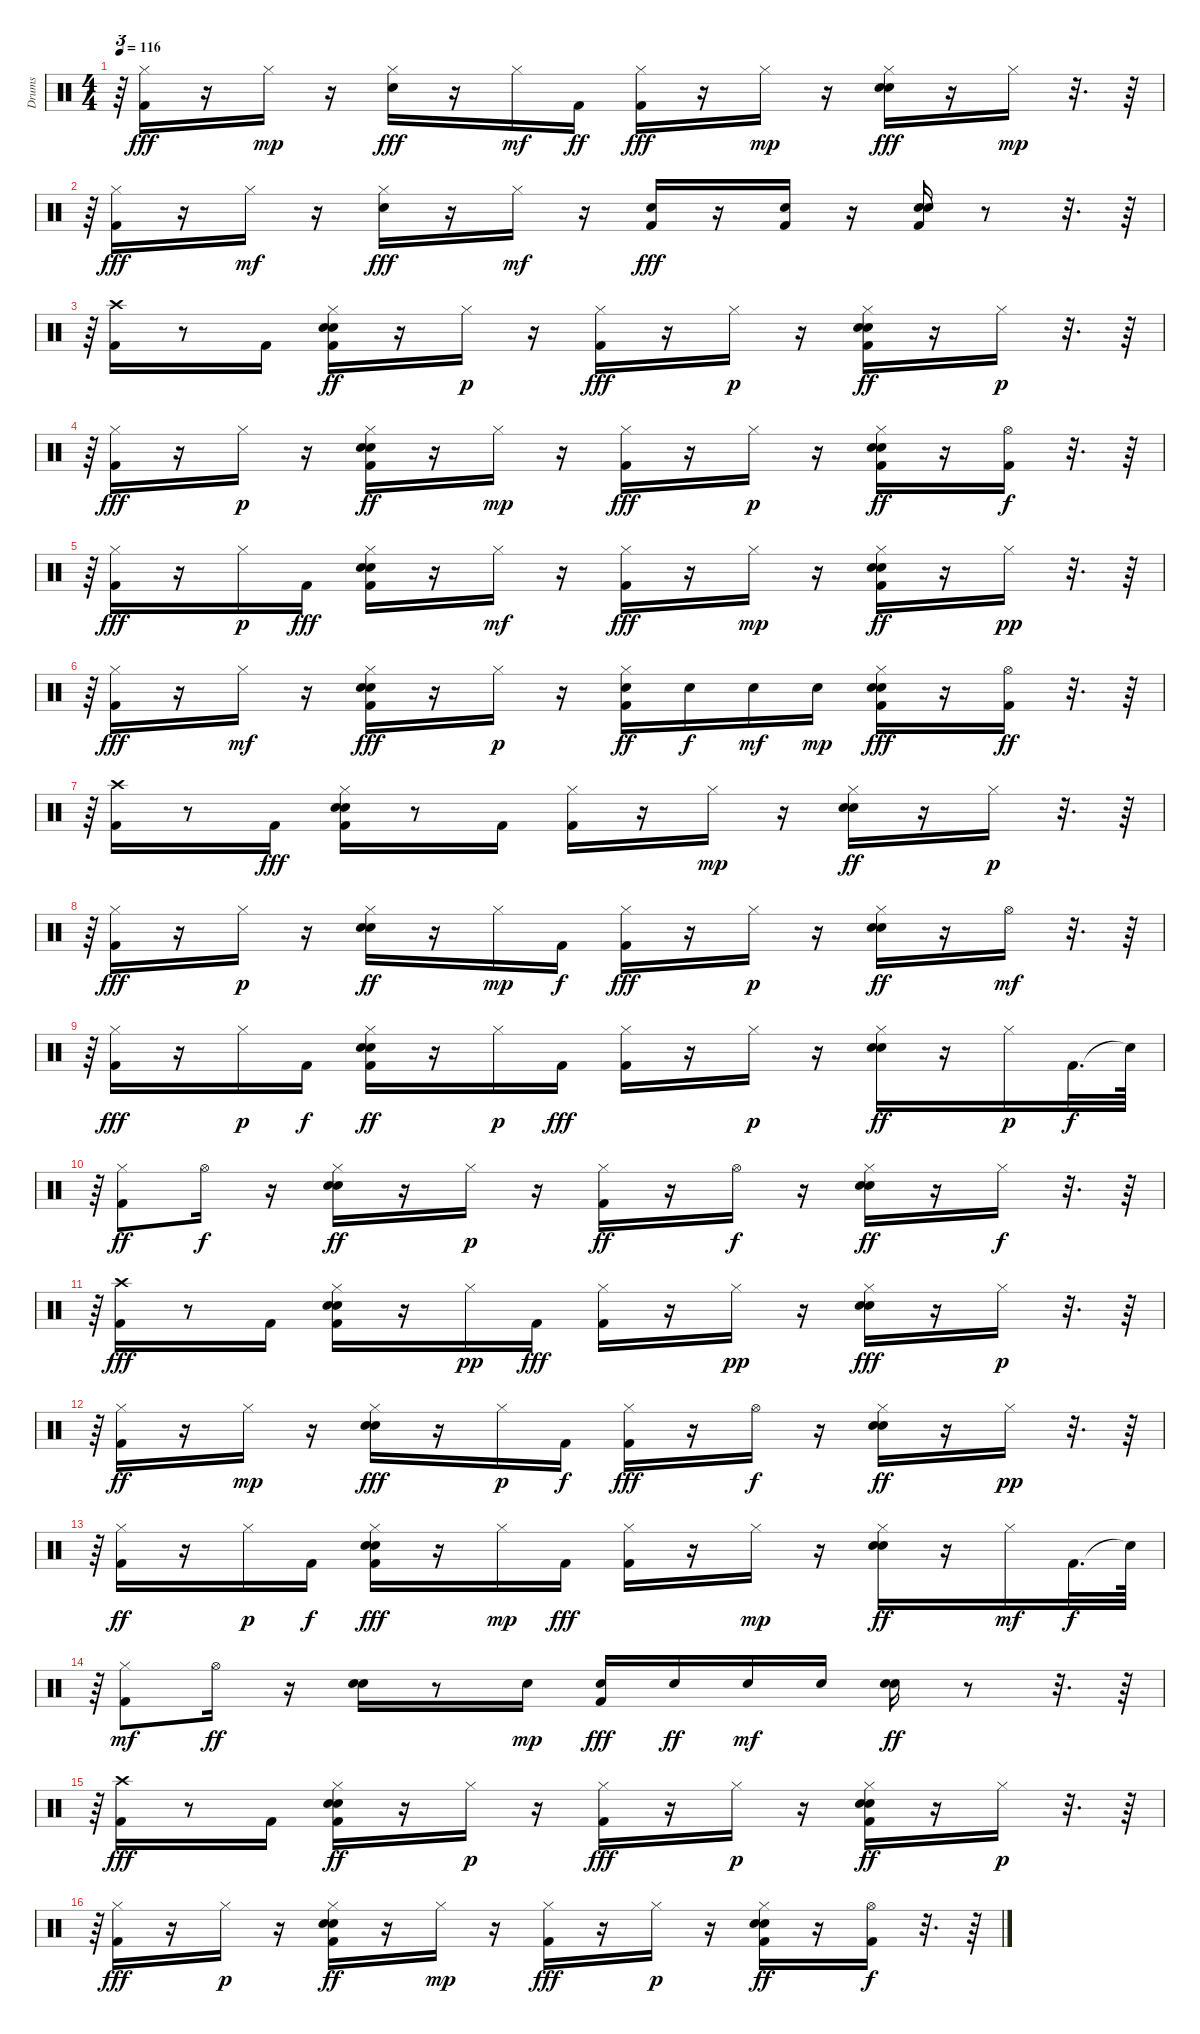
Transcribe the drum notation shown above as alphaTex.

\track ("Drums" "Drums") {instrument percussion}
\staff {score}
\articulation defaults
\ts (4 4)
\tempo 116
\clef neutral
\ks c
r.64{tu (3 2) dy fff} ("Hi-Hat (closed)" "Kick (hit) 2").16 r.16 "Hi-Hat (closed)".16{dy mp} r.16 ("Snare (hit) 2" "Hi-Hat (closed)").16{dy fff} r.16 "Hi-Hat (closed)".16{dy mf} "Kick (hit) 2".16{dy ff} ("Hi-Hat (closed)" "Kick (hit) 2").16{dy fff} r.16 "Hi-Hat (closed)".16{dy mp} r.16 ("Hi-Hat (closed)" "Snare (hit) 2" "Hand Clap (hit)").16{dy fff} r.16 "Hi-Hat (closed)".16{dy mp} r.32{d} r.64 |
r.64{tu (3 2)} ("Kick (hit) 2" "Hi-Hat (closed)").16{dy fff} r.16 "Hi-Hat (closed)".16{dy mf} r.16 ("Snare (hit) 2" "Hi-Hat (closed)").16{dy fff} r.16 "Hi-Hat (closed)".16{dy mf} r.16 ("Kick (hit) 2" "Snare (hit) 2").16{dy fff} r.16 ("Snare (hit) 2" "Kick (hit) 2").16 r.16 ("Kick (hit) 2" "Hand Clap (hit)" "Snare (hit) 2").16 r.8 r.32{d} r.64 |
r.64{tu (3 2)} ("Kick (hit) 2" "Crash high (hit)").16 r.8 "Kick (hit) 2".16 ("Snare (hit) 2" "Kick (hit) 2" "Hi-Hat (closed)" "Hand Clap (hit)").16{dy ff} r.16 "Hi-Hat (closed)".16{dy p} r.16 ("Kick (hit) 2" "Hi-Hat (closed)").16{dy fff} r.16 "Hi-Hat (closed)".16{dy p} r.16 ("Hi-Hat (closed)" "Snare (hit) 2" "Kick (hit) 2" "Hand Clap (hit)").16{dy ff} r.16 "Hi-Hat (closed)".16{dy p} r.32{d} r.64 |
r.64{tu (3 2)} ("Hi-Hat (closed)" "Kick (hit) 2").16{dy fff} r.16 "Hi-Hat (closed)".16{dy p} r.16 ("Kick (hit) 2" "Snare (hit) 2" "Hi-Hat (closed)" "Hand Clap (hit)").16{dy ff} r.16 "Hi-Hat (closed)".16{dy mp} r.16 ("Hi-Hat (closed)" "Kick (hit) 2").16{dy fff} r.16 "Hi-Hat (closed)".16{dy p} r.16 ("Kick (hit) 2" "Snare (hit) 2" "Hand Clap (hit)" "Hi-Hat (closed)").16{dy ff} r.16 ("Kick (hit) 2" "Hi-Hat (open)").16{dy f} r.32{d} r.64 |
r.64{tu (3 2)} ("Hi-Hat (closed)" "Kick (hit) 2").16{dy fff} r.16 "Hi-Hat (closed)".16{dy p} "Kick (hit) 2".16{dy fff} ("Hi-Hat (closed)" "Snare (hit) 2" "Hand Clap (hit)" "Kick (hit) 2").16 r.16 "Hi-Hat (closed)".16{dy mf} r.16 ("Kick (hit) 2" "Hi-Hat (closed)").16{dy fff} r.16 "Hi-Hat (closed)".16{dy mp} r.16 ("Snare (hit) 2" "Kick (hit) 2" "Hi-Hat (closed)" "Hand Clap (hit)").16{dy ff} r.16 "Hi-Hat (closed)".16{dy pp} r.32{d} r.64 |
r.64{tu (3 2)} ("Hi-Hat (closed)" "Kick (hit) 2").16{dy fff} r.16 "Hi-Hat (closed)".16{dy mf} r.16 ("Hi-Hat (closed)" "Snare (hit) 2" "Hand Clap (hit)" "Kick (hit) 2").16{dy fff} r.16 "Hi-Hat (closed)".16{dy p} r.16 ("Kick (hit) 2" "Snare (hit) 2" "Hi-Hat (closed)").16{dy ff} "Snare (hit) 2".16{dy f} "Snare (hit) 2".16{dy mf} "Snare (hit) 2".16{dy mp} ("Hi-Hat (closed)" "Hand Clap (hit)" "Snare (hit) 2" "Kick (hit) 2").16{dy fff} r.16 ("Kick (hit) 2" "Hi-Hat (open)").16{dy ff} r.32{d} r.64 |
r.64{tu (3 2)} ("Kick (hit) 2" "Crash high (hit)").16 r.8 "Kick (hit) 2".16{dy fff} ("Hand Clap (hit)" "Snare (hit) 2" "Hi-Hat (closed)" "Kick (hit) 2").16 r.8 "Kick (hit) 2".16 ("Hi-Hat (closed)" "Kick (hit) 2").16 r.16 "Hi-Hat (closed)".16{dy mp} r.16 ("Snare (hit) 2" "Hand Clap (hit)" "Hi-Hat (closed)").16{dy ff} r.16 "Hi-Hat (closed)".16{dy p} r.32{d} r.64 |
r.64{tu (3 2)} ("Hi-Hat (closed)" "Kick (hit) 2").16{dy fff} r.16 "Hi-Hat (closed)".16{dy p} r.16 ("Hand Clap (hit)" "Snare (hit) 2" "Hi-Hat (closed)").16{dy ff} r.16 "Hi-Hat (closed)".16{dy mp} "Kick (hit) 2".16{dy f} ("Kick (hit) 2" "Hi-Hat (closed)").16{dy fff} r.16 "Hi-Hat (closed)".16{dy p} r.16 ("Hi-Hat (closed)" "Snare (hit) 2" "Hand Clap (hit)").16{dy ff} r.16 "Hi-Hat (open)".16{dy mf} r.32{d} r.64 |
r.64{tu (3 2)} ("Kick (hit) 2" "Hi-Hat (closed)").16{dy fff} r.16 "Hi-Hat (closed)".16{dy p} "Kick (hit) 2".16{dy f} ("Snare (hit) 2" "Kick (hit) 2" "Hand Clap (hit)" "Hi-Hat (closed)").16{dy ff} r.16 "Hi-Hat (closed)".16{dy p} "Kick (hit) 2".16{dy fff} ("Hi-Hat (closed)" "Kick (hit) 2").16 r.16 "Hi-Hat (closed)".16{dy p} r.16 ("Snare (hit) 2" "Hi-Hat (closed)" "Hand Clap (hit)").16{dy ff} r.16 "Hi-Hat (closed)".16{dy p} "Kick (hit) 2".32{d dy f} "Snare (hit)"{t}.64 |
r.64{tu (3 2)} ("Kick (hit) 2" "Hi-Hat (closed)").8{dy ff} "Hi-Hat (open)".16{dy f} r.16 ("Snare (hit) 2" "Hi-Hat (closed)" "Hand Clap (hit)").16{dy ff} r.16 "Hi-Hat (closed)".16{dy p} r.16 ("Kick (hit) 2" "Hi-Hat (closed)").16{dy ff} r.16 "Hi-Hat (open)".16{dy f} r.16 ("Snare (hit) 2" "Hi-Hat (closed)" "Hand Clap (hit)").16{dy ff} r.16 "Hi-Hat (closed)".16{dy f} r.32{d} r.64 |
r.64{tu (3 2)} ("Crash high (hit)" "Kick (hit) 2").16{dy fff} r.8 "Kick (hit) 2".16 ("Hi-Hat (closed)" "Hand Clap (hit)" "Kick (hit) 2" "Snare (hit) 2").16 r.16 "Hi-Hat (closed)".16{dy pp} "Kick (hit) 2".16{dy fff} ("Hi-Hat (closed)" "Kick (hit) 2").16 r.16 "Hi-Hat (closed)".16{dy pp} r.16 ("Hand Clap (hit)" "Snare (hit) 2" "Hi-Hat (closed)").16{dy fff} r.16 "Hi-Hat (closed)".16{dy p} r.32{d} r.64 |
r.64{tu (3 2)} ("Kick (hit) 2" "Hi-Hat (closed)").16{dy ff} r.16 "Hi-Hat (closed)".16{dy mp} r.16 ("Hand Clap (hit)" "Hi-Hat (closed)" "Snare (hit) 2").16{dy fff} r.16 "Hi-Hat (closed)".16{dy p} "Kick (hit) 2".16{dy f} ("Hi-Hat (closed)" "Kick (hit) 2").16{dy fff} r.16 "Hi-Hat (open)".16{dy f} r.16 ("Hi-Hat (closed)" "Snare (hit) 2" "Hand Clap (hit)").16{dy ff} r.16 "Hi-Hat (closed)".16{dy pp} r.32{d} r.64 |
r.64{tu (3 2)} ("Kick (hit) 2" "Hi-Hat (closed)").16{dy ff} r.16 "Hi-Hat (closed)".16{dy p} "Kick (hit) 2".16{dy f} ("Snare (hit) 2" "Kick (hit) 2" "Hi-Hat (closed)" "Hand Clap (hit)").16{dy fff} r.16 "Hi-Hat (closed)".16{dy mp} "Kick (hit) 2".16{dy fff} ("Hi-Hat (closed)" "Kick (hit) 2").16 r.16 "Hi-Hat (closed)".16{dy mp} r.16 ("Snare (hit) 2" "Hi-Hat (closed)" "Hand Clap (hit)").16{dy ff} r.16 "Hi-Hat (closed)".16{dy mf} "Kick (hit) 2".32{d dy f} "Snare (hit)"{t}.64 |
r.64{tu (3 2)} ("Kick (hit) 2" "Hi-Hat (closed)").8{dy mf} "Hi-Hat (open)".16{dy ff} r.16 ("Snare (hit) 2" "Hand Clap (hit)").16 r.8 "Snare (hit) 2".16{dy mp} ("Snare (hit) 2" "Kick (hit) 2").16{dy fff} "Snare (hit) 2".16{dy ff} "Snare (hit) 2".16{dy mf} "Snare (hit) 2".16 ("Snare (hit) 2" "Hand Clap (hit)").16{dy ff} r.8 r.32{d} r.64 |
r.64{tu (3 2)} ("Crash high (hit)" "Kick (hit) 2").16{dy fff} r.8 "Kick (hit) 2".16 ("Kick (hit) 2" "Snare (hit) 2" "Hand Clap (hit)" "Hi-Hat (closed)").16{dy ff} r.16 "Hi-Hat (closed)".16{dy p} r.16 ("Kick (hit) 2" "Hi-Hat (closed)").16{dy fff} r.16 "Hi-Hat (closed)".16{dy p} r.16 ("Hi-Hat (closed)" "Hand Clap (hit)" "Kick (hit) 2" "Snare (hit) 2").16{dy ff} r.16 "Hi-Hat (closed)".16{dy p} r.32{d} r.64 |
r.64{tu (3 2)} ("Hi-Hat (closed)" "Kick (hit) 2").16{dy fff} r.16 "Hi-Hat (closed)".16{dy p} r.16 ("Kick (hit) 2" "Snare (hit) 2" "Hi-Hat (closed)" "Hand Clap (hit)").16{dy ff} r.16 "Hi-Hat (closed)".16{dy mp} r.16 ("Hi-Hat (closed)" "Kick (hit) 2").16{dy fff} r.16 "Hi-Hat (closed)".16{dy p} r.16 ("Snare (hit) 2" "Kick (hit) 2" "Hand Clap (hit)" "Hi-Hat (closed)").16{dy ff} r.16 ("Hi-Hat (open)" "Kick (hit) 2").16{dy f} r.32{d} r.64
